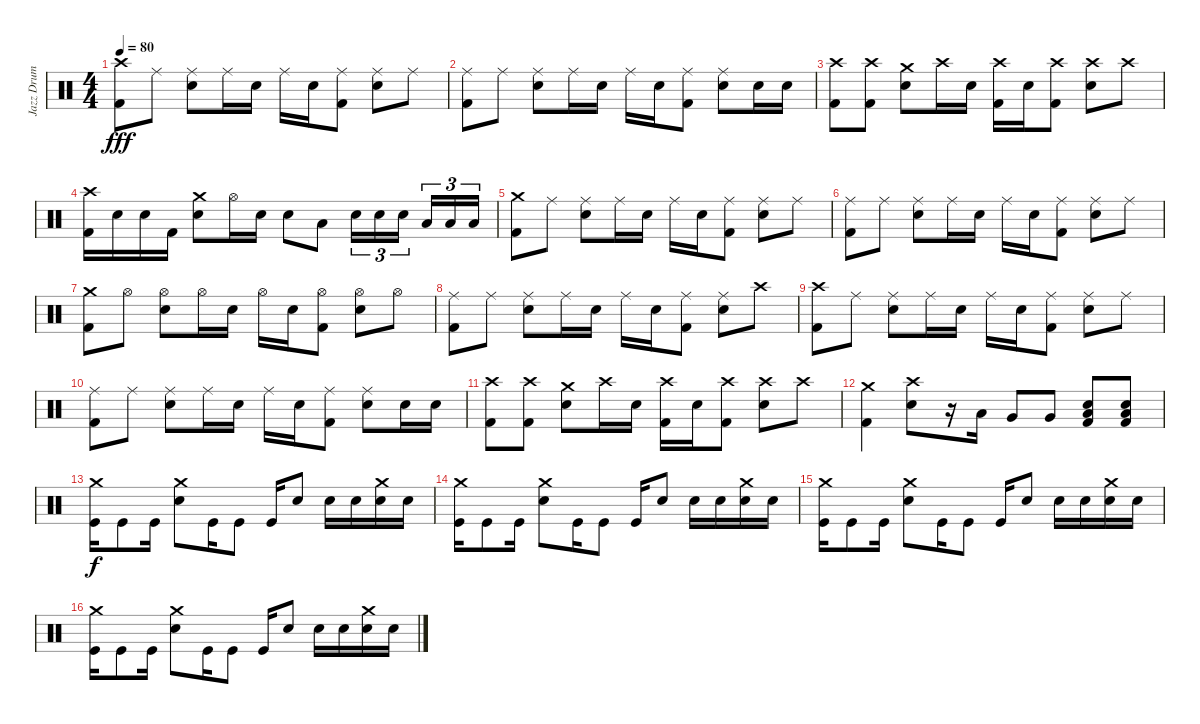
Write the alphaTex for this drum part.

\track ("Jazz Drum" "Jazz Drum") {instrument percussion}
\staff {score}
\articulation defaults
\ts (4 4)
\tempo 80
\clef neutral
\ks c
("Crash high (hit)" "Kick (hit) 2").8{dy fff} "Ride (middle)".8 ("Ride (middle)" "Electric Snare (hit)").8 "Ride (middle)".16 "Electric Snare (hit)".16 "Ride (middle)".16 "Electric Snare (hit)".16 ("Ride (middle)" "Kick (hit) 2").8 ("Ride (middle)" "Electric Snare (hit)").8 "Ride (middle)".8 |
("Ride (middle)" "Kick (hit) 2").8 "Ride (middle)".8 ("Ride (middle)" "Electric Snare (hit)").8 "Ride (middle)".16 "Electric Snare (hit)".16 "Ride (middle)".16 "Electric Snare (hit)".16 ("Ride (middle)" "Kick (hit) 2").8 ("Ride (middle)" "Electric Snare (hit)").8 "Electric Snare (hit)".16 "Electric Snare (hit)".16 |
("Crash high (hit)" "Kick (hit) 2").8 ("Crash high (hit)" "Kick (hit) 2").8 ("Crash medium (hit)" "Electric Snare (hit)").8 "Crash high (hit)".16 "Electric Snare (hit)".16 ("Crash high (hit)" "Kick (hit) 2").16 "Electric Snare (hit)".16 ("Crash high (hit)" "Kick (hit) 2").8 ("Crash high (hit)" "Electric Snare (hit)").8 "Crash high (hit)".8 |
("Crash high (hit)" "Kick (hit) 2").16 "Electric Snare (hit)".16 "Electric Snare (hit)".16 "Kick (hit) 2".16 ("Crash medium (hit)" "Electric Snare (hit)").8 "Hi-Hat (open)".16 "Electric Snare (hit)".16 "Electric Snare (hit)".8 "Low Tom (hit)".8 "Electric Snare (hit)".16{tu (3 2)} "Electric Snare (hit)".16{tu (3 2)} "Electric Snare (hit)".16{tu (3 2) beam splitsecondary} "Low Tom (hit)".16{tu (3 2)} "Low Tom (hit)".16{tu (3 2)} "Low Tom (hit)".16{tu (3 2)} |
("Crash medium (hit)" "Kick (hit) 2").8 "Ride (middle)".8 ("Ride (middle)" "Electric Snare (hit)").8 "Ride (middle)".16 "Electric Snare (hit)".16 "Ride (middle)".16 "Electric Snare (hit)".16 ("Ride (middle)" "Kick (hit) 2").8 ("Ride (middle)" "Electric Snare (hit)").8 "Ride (middle)".8 |
("Ride (middle)" "Kick (hit) 2").8 "Ride (middle)".8 ("Ride (middle)" "Electric Snare (hit)").8 "Ride (middle)".16 "Electric Snare (hit)".16 "Ride (middle)".16 "Electric Snare (hit)".16 ("Ride (middle)" "Kick (hit) 2").8 ("Ride (middle)" "Electric Snare (hit)").8 "Ride (middle)".8 |
("Crash medium (hit)" "Kick (hit) 2").8 "Hi-Hat (open)".8 ("Hi-Hat (open)" "Electric Snare (hit)").8 "Hi-Hat (open)".16 "Electric Snare (hit)".16 "Hi-Hat (open)".16 "Electric Snare (hit)".16 ("Hi-Hat (open)" "Kick (hit) 2").8 ("Hi-Hat (open)" "Electric Snare (hit)").8 "Hi-Hat (open)".8 |
("Ride (middle)" "Kick (hit) 2").8 "Ride (middle)".8 ("Ride (middle)" "Electric Snare (hit)").8 "Ride (middle)".16 "Electric Snare (hit)".16 "Ride (middle)".16 "Electric Snare (hit)".16 ("Ride (middle)" "Kick (hit) 2").8 ("Ride (middle)" "Electric Snare (hit)").8 "Crash high (hit)".8 |
("Crash high (hit)" "Kick (hit) 2").8 "Ride (middle)".8 ("Ride (middle)" "Electric Snare (hit)").8 "Ride (middle)".16 "Electric Snare (hit)".16 "Ride (middle)".16 "Electric Snare (hit)".16 ("Ride (middle)" "Kick (hit) 2").8 ("Ride (middle)" "Electric Snare (hit)").8 "Ride (middle)".8 |
("Ride (middle)" "Kick (hit) 2").8 "Ride (middle)".8 ("Ride (middle)" "Electric Snare (hit)").8 "Ride (middle)".16 "Electric Snare (hit)".16 "Ride (middle)".16 "Electric Snare (hit)".16 ("Ride (middle)" "Kick (hit) 2").8 ("Ride (middle)" "Electric Snare (hit)").8 "Electric Snare (hit)".16 "Electric Snare (hit)".16 |
("Crash high (hit)" "Kick (hit) 2").8 ("Crash high (hit)" "Kick (hit) 2").8 ("Crash medium (hit)" "Electric Snare (hit)").8 "Crash high (hit)".16 "Electric Snare (hit)".16 ("Crash high (hit)" "Kick (hit) 2").16 "Electric Snare (hit)".16 ("Crash high (hit)" "Kick (hit) 2").8 ("Crash high (hit)" "Electric Snare (hit)").8 "Crash high (hit)".8 |
("Crash medium (hit)" "Kick (hit) 2").4 ("Crash high (hit)" "Electric Snare (hit)").8 r.16 "Low Tom (hit)".16 "Very Low Tom (hit)".8 "Very Low Tom (hit)".8 ("Electric Snare (hit)" "Low Floor Tom (hit)" "Kick (hit) 2").8 ("Electric Snare (hit)" "Low Floor Tom (hit)" "Kick (hit) 2").8 |
("Kick (hit)" "Crash medium (hit)").16{dy f} "Kick (hit)".8 "Kick (hit)".16 ("Snare (hit) 2" "Crash medium (hit)").8 "Kick (hit)".16 "Kick (hit)".8 "Kick (hit)".16 "Snare (hit) 2".8 "Snare (hit) 2".16 "Snare (hit) 2".16 ("Snare (hit) 2" "Crash medium (hit)").16 "Snare (hit) 2".16 |
("Kick (hit)" "Crash medium (hit)").16 "Kick (hit)".8 "Kick (hit)".16 ("Snare (hit) 2" "Crash medium (hit)").8 "Kick (hit)".16 "Kick (hit)".8 "Kick (hit)".16 "Snare (hit) 2".8 "Snare (hit) 2".16 "Snare (hit) 2".16 ("Snare (hit) 2" "Crash medium (hit)").16 "Snare (hit) 2".16 |
("Kick (hit)" "Crash medium (hit)").16 "Kick (hit)".8 "Kick (hit)".16 ("Snare (hit) 2" "Crash medium (hit)").8 "Kick (hit)".16 "Kick (hit)".8 "Kick (hit)".16 "Snare (hit) 2".8 "Snare (hit) 2".16 "Snare (hit) 2".16 ("Snare (hit) 2" "Crash medium (hit)").16 "Snare (hit) 2".16 |
("Kick (hit)" "Crash medium (hit)").16 "Kick (hit)".8 "Kick (hit)".16 ("Snare (hit) 2" "Crash medium (hit)").8 "Kick (hit)".16 "Kick (hit)".8 "Kick (hit)".16 "Snare (hit) 2".8 "Snare (hit) 2".16 "Snare (hit) 2".16 ("Snare (hit) 2" "Crash medium (hit)").16 "Snare (hit) 2".16
